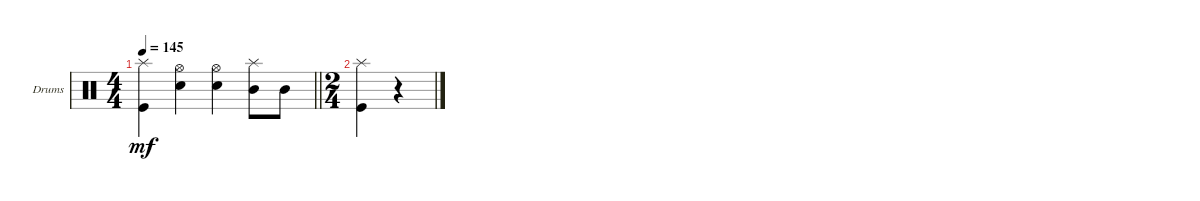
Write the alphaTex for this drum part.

\bracketExtendMode groupsimilarinstruments
\firstSystemTrackNameOrientation horizontal
\otherSystemsTrackNameOrientation horizontal
\track ("Drums" "Drums") {instrument percussion}
\staff {score}
\articulation defaults
\ts (4 4)
\tempo 145
\clef neutral
\barLineRight lightlight
\ks c
("Kick (hit)" "Splash (hit)").4{dy mf} ("Snare (hit) 2" "Hi-Hat (open)").4 ("Hi-Hat (open)" "Snare (hit) 2").4 ("Splash (hit)" "Mid Tom (hit)").8 "Mid Tom (hit)".8 |
\ts (2 4)
("Kick (hit)" "Splash (hit)").4 r.4
